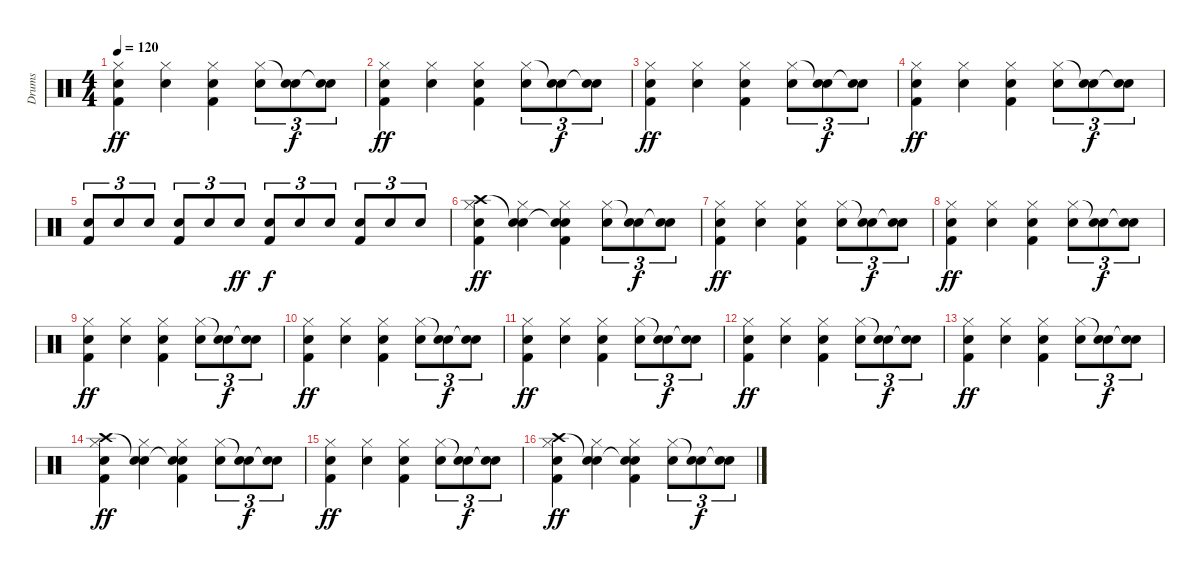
\track ("Drums" "Drums") {instrument percussion}
\staff {score}
\articulation defaults
\ts (4 4)
\tempo 120
\clef neutral
\ks c
("Hi-Hat (closed)" "Snare (hit) 2" "Kick (hit) 2").4{dy ff} ("Hi-Hat (closed)" "Snare (hit) 2").4 ("Hi-Hat (closed)" "Snare (hit) 2" "Kick (hit) 2").4 ("Hi-Hat (closed)" "Snare (hit) 2").8{tu (3 2)} ("Snare (hit)"{t} "Snare (hit) 2").8{tu (3 2) dy f} ("Snare (hit)"{t} "Snare (hit) 2").8{tu (3 2)} |
("Hi-Hat (closed)" "Snare (hit) 2" "Kick (hit) 2").4{dy ff} ("Hi-Hat (closed)" "Snare (hit) 2").4 ("Hi-Hat (closed)" "Snare (hit) 2" "Kick (hit) 2").4 ("Hi-Hat (closed)" "Snare (hit) 2").8{tu (3 2)} ("Snare (hit)"{t} "Snare (hit) 2").8{tu (3 2) dy f} ("Snare (hit)"{t} "Snare (hit) 2").8{tu (3 2)} |
("Hi-Hat (closed)" "Snare (hit) 2" "Kick (hit) 2").4{dy ff} ("Hi-Hat (closed)" "Snare (hit) 2").4 ("Hi-Hat (closed)" "Snare (hit) 2" "Kick (hit) 2").4 ("Hi-Hat (closed)" "Snare (hit) 2").8{tu (3 2)} ("Snare (hit)"{t} "Snare (hit) 2").8{tu (3 2) dy f} ("Snare (hit)"{t} "Snare (hit) 2").8{tu (3 2)} |
("Hi-Hat (closed)" "Snare (hit) 2" "Kick (hit) 2").4{dy ff} ("Hi-Hat (closed)" "Snare (hit) 2").4 ("Hi-Hat (closed)" "Snare (hit) 2" "Kick (hit) 2").4 ("Hi-Hat (closed)" "Snare (hit) 2").8{tu (3 2)} ("Snare (hit)"{t} "Snare (hit) 2").8{tu (3 2) dy f} ("Snare (hit)"{t} "Snare (hit) 2").8{tu (3 2)} |
("Snare (hit) 2" "Kick (hit) 2").8{tu (3 2)} "Snare (hit) 2".8{tu (3 2)} "Snare (hit) 2".8{tu (3 2)} ("Snare (hit) 2" "Kick (hit) 2").8{tu (3 2)} "Snare (hit) 2".8{tu (3 2)} "Snare (hit) 2".8{tu (3 2) dy ff} ("Snare (hit) 2" "Kick (hit) 2").8{tu (3 2) dy f} "Snare (hit) 2".8{tu (3 2)} "Snare (hit) 2".8{tu (3 2)} ("Snare (hit) 2" "Kick (hit) 2").8{tu (3 2)} "Snare (hit) 2".8{tu (3 2)} "Snare (hit) 2".8{tu (3 2)} |
("Crash high (hit)" "Hi-Hat (closed)" "Snare (hit) 2" "Kick (hit) 2").4{dy ff} ("Snare (hit)"{t} "Hi-Hat (closed)" "Snare (hit) 2").4 ("Snare (hit)"{t} "Hi-Hat (closed)" "Snare (hit) 2" "Kick (hit) 2").4 ("Hi-Hat (closed)" "Snare (hit) 2").8{tu (3 2)} ("Snare (hit)"{t} "Snare (hit) 2").8{tu (3 2) dy f} ("Snare (hit)"{t} "Snare (hit) 2").8{tu (3 2)} |
("Hi-Hat (closed)" "Snare (hit) 2" "Kick (hit) 2").4{dy ff} ("Hi-Hat (closed)" "Snare (hit) 2").4 ("Hi-Hat (closed)" "Snare (hit) 2" "Kick (hit) 2").4 ("Hi-Hat (closed)" "Snare (hit) 2").8{tu (3 2)} ("Snare (hit)"{t} "Snare (hit) 2").8{tu (3 2) dy f} ("Snare (hit)"{t} "Snare (hit) 2").8{tu (3 2)} |
("Hi-Hat (closed)" "Snare (hit) 2" "Kick (hit) 2").4{dy ff} ("Hi-Hat (closed)" "Snare (hit) 2").4 ("Hi-Hat (closed)" "Snare (hit) 2" "Kick (hit) 2").4 ("Hi-Hat (closed)" "Snare (hit) 2").8{tu (3 2)} ("Snare (hit)"{t} "Snare (hit) 2").8{tu (3 2) dy f} ("Snare (hit)"{t} "Snare (hit) 2").8{tu (3 2)} |
("Hi-Hat (closed)" "Snare (hit) 2" "Kick (hit) 2").4{dy ff} ("Hi-Hat (closed)" "Snare (hit) 2").4 ("Hi-Hat (closed)" "Snare (hit) 2" "Kick (hit) 2").4 ("Hi-Hat (closed)" "Snare (hit) 2").8{tu (3 2)} ("Snare (hit)"{t} "Snare (hit) 2").8{tu (3 2) dy f} ("Snare (hit)"{t} "Snare (hit) 2").8{tu (3 2)} |
("Hi-Hat (closed)" "Snare (hit) 2" "Kick (hit) 2").4{dy ff} ("Hi-Hat (closed)" "Snare (hit) 2").4 ("Hi-Hat (closed)" "Snare (hit) 2" "Kick (hit) 2").4 ("Hi-Hat (closed)" "Snare (hit) 2").8{tu (3 2)} ("Snare (hit)"{t} "Snare (hit) 2").8{tu (3 2) dy f} ("Snare (hit)"{t} "Snare (hit) 2").8{tu (3 2)} |
("Hi-Hat (closed)" "Snare (hit) 2" "Kick (hit) 2").4{dy ff} ("Hi-Hat (closed)" "Snare (hit) 2").4 ("Hi-Hat (closed)" "Snare (hit) 2" "Kick (hit) 2").4 ("Hi-Hat (closed)" "Snare (hit) 2").8{tu (3 2)} ("Snare (hit)"{t} "Snare (hit) 2").8{tu (3 2) dy f} ("Snare (hit)"{t} "Snare (hit) 2").8{tu (3 2)} |
("Hi-Hat (closed)" "Snare (hit) 2" "Kick (hit) 2").4{dy ff} ("Hi-Hat (closed)" "Snare (hit) 2").4 ("Hi-Hat (closed)" "Snare (hit) 2" "Kick (hit) 2").4 ("Hi-Hat (closed)" "Snare (hit) 2").8{tu (3 2)} ("Snare (hit)"{t} "Snare (hit) 2").8{tu (3 2) dy f} ("Snare (hit)"{t} "Snare (hit) 2").8{tu (3 2)} |
("Hi-Hat (closed)" "Snare (hit) 2" "Kick (hit) 2").4{dy ff} ("Hi-Hat (closed)" "Snare (hit) 2").4 ("Hi-Hat (closed)" "Snare (hit) 2" "Kick (hit) 2").4 ("Hi-Hat (closed)" "Snare (hit) 2").8{tu (3 2)} ("Snare (hit)"{t} "Snare (hit) 2").8{tu (3 2) dy f} ("Snare (hit)"{t} "Snare (hit) 2").8{tu (3 2)} |
("Crash high (hit)" "Hi-Hat (closed)" "Snare (hit) 2" "Kick (hit) 2").4{dy ff} ("Snare (hit)"{t} "Hi-Hat (closed)" "Snare (hit) 2").4 ("Snare (hit)"{t} "Hi-Hat (closed)" "Snare (hit) 2" "Kick (hit) 2").4 ("Hi-Hat (closed)" "Snare (hit) 2").8{tu (3 2)} ("Snare (hit)"{t} "Snare (hit) 2").8{tu (3 2) dy f} ("Snare (hit)"{t} "Snare (hit) 2").8{tu (3 2)} |
("Hi-Hat (closed)" "Snare (hit) 2" "Kick (hit) 2").4{dy ff} ("Hi-Hat (closed)" "Snare (hit) 2").4 ("Hi-Hat (closed)" "Snare (hit) 2" "Kick (hit) 2").4 ("Hi-Hat (closed)" "Snare (hit) 2").8{tu (3 2)} ("Snare (hit)"{t} "Snare (hit) 2").8{tu (3 2) dy f} ("Snare (hit)"{t} "Snare (hit) 2").8{tu (3 2)} |
("Crash high (hit)" "Hi-Hat (closed)" "Snare (hit) 2" "Kick (hit) 2").4{dy ff} ("Snare (hit)"{t} "Hi-Hat (closed)" "Snare (hit) 2").4 ("Snare (hit)"{t} "Hi-Hat (closed)" "Snare (hit) 2" "Kick (hit) 2").4 ("Hi-Hat (closed)" "Snare (hit) 2").8{tu (3 2)} ("Snare (hit)"{t} "Snare (hit) 2").8{tu (3 2) dy f} ("Snare (hit)"{t} "Snare (hit) 2").8{tu (3 2)}
